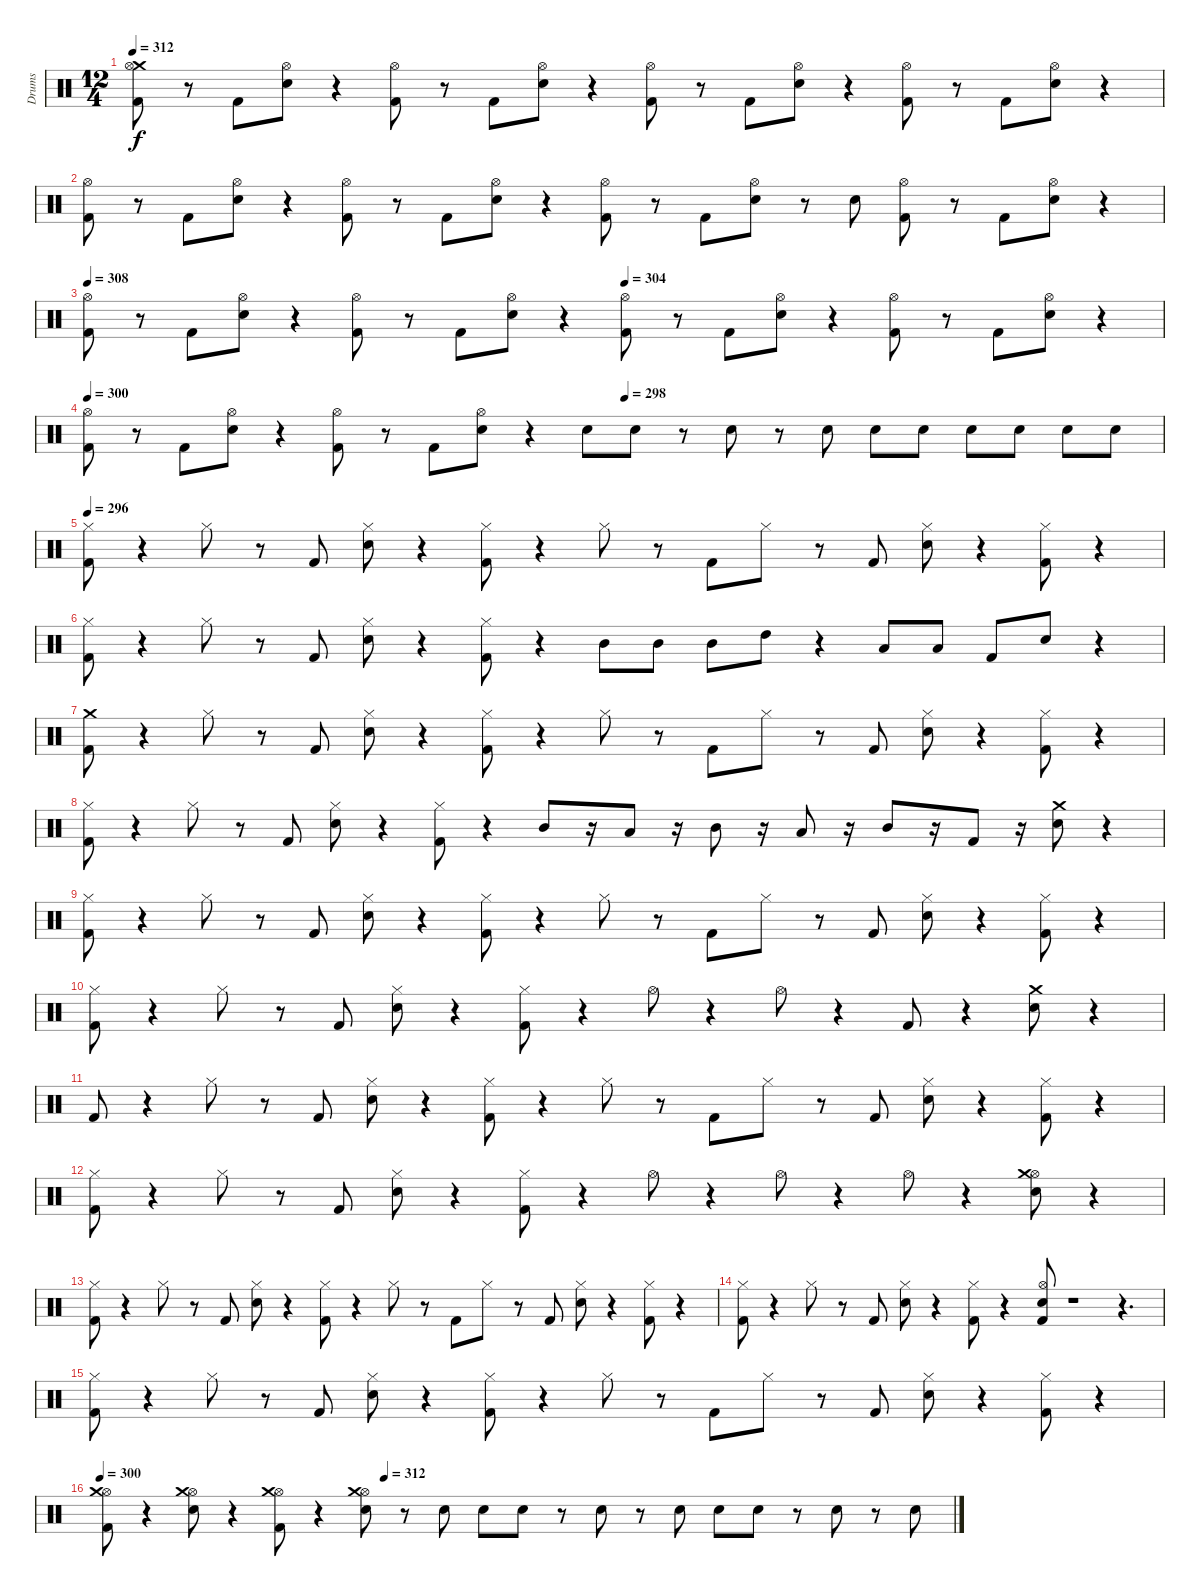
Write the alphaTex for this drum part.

\track ("Drums" "Drums") {instrument percussion}
\staff {score}
\articulation defaults
\ts (12 4)
\tempo 312
\clef neutral
\ks c
("Crash medium (hit)" "Kick (hit) 2" "Hi-Hat (open)").8{dy f} r.8 "Kick (hit) 2".8 ("Hi-Hat (open)" "Electric Snare (hit)").8 r.4 ("Hi-Hat (open)" "Kick (hit) 2").8 r.8 "Kick (hit) 2".8 ("Electric Snare (hit)" "Hi-Hat (open)").8 r.4 ("Hi-Hat (open)" "Kick (hit) 2").8 r.8 "Kick (hit) 2".8 ("Hi-Hat (open)" "Electric Snare (hit)").8 r.4 ("Hi-Hat (open)" "Kick (hit) 2").8 r.8 "Kick (hit) 2".8 ("Hi-Hat (open)" "Electric Snare (hit)").8 r.4 |
("Hi-Hat (open)" "Kick (hit) 2").8 r.8 "Kick (hit) 2".8 ("Hi-Hat (open)" "Electric Snare (hit)").8 r.4 ("Hi-Hat (open)" "Kick (hit) 2").8 r.8 "Kick (hit) 2".8 ("Hi-Hat (open)" "Electric Snare (hit)").8 r.4 ("Hi-Hat (open)" "Kick (hit) 2").8 r.8 "Kick (hit) 2".8 ("Hi-Hat (open)" "Electric Snare (hit)").8 r.8 "Electric Snare (hit)".8 ("Hi-Hat (open)" "Kick (hit) 2").8 r.8 "Kick (hit) 2".8 ("Hi-Hat (open)" "Electric Snare (hit)").8 r.4 |
\tempo 308
\tempo (304 0.5)
("Kick (hit) 2" "Hi-Hat (open)").8 r.8 "Kick (hit) 2".8 ("Hi-Hat (open)" "Electric Snare (hit)").8 r.4 ("Hi-Hat (open)" "Kick (hit) 2").8 r.8 "Kick (hit) 2".8 ("Electric Snare (hit)" "Hi-Hat (open)").8 r.4 ("Hi-Hat (open)" "Kick (hit) 2").8 r.8 "Kick (hit) 2".8 ("Hi-Hat (open)" "Electric Snare (hit)").8 r.4 ("Hi-Hat (open)" "Kick (hit) 2").8 r.8 "Kick (hit) 2".8 ("Hi-Hat (open)" "Electric Snare (hit)").8 r.4 |
\tempo 300
\tempo (298 0.5)
("Hi-Hat (open)" "Kick (hit) 2").8 r.8 "Kick (hit) 2".8 ("Hi-Hat (open)" "Electric Snare (hit)").8 r.4 ("Hi-Hat (open)" "Kick (hit) 2").8 r.8 "Kick (hit) 2".8 ("Hi-Hat (open)" "Electric Snare (hit)").8 r.4 "Electric Snare (hit)".8 "Electric Snare (hit)".8 r.8 "Electric Snare (hit)".8 r.8 "Electric Snare (hit)".8 "Electric Snare (hit)".8 "Electric Snare (hit)".8 "Electric Snare (hit)".8 "Electric Snare (hit)".8 "Electric Snare (hit)".8 "Electric Snare (hit)".8 |
\tempo 296
("Hi-Hat (closed)" "Kick (hit) 2").8 r.4 "Hi-Hat (closed)".8 r.8 "Kick (hit) 2".8 ("Hi-Hat (closed)" "Electric Snare (hit)").8 r.4 ("Hi-Hat (closed)" "Kick (hit) 2").8 r.4 "Hi-Hat (closed)".8 r.8 "Kick (hit) 2".8 "Hi-Hat (closed)".8 r.8 "Kick (hit) 2".8 ("Hi-Hat (closed)" "Electric Snare (hit)").8 r.4 ("Hi-Hat (closed)" "Kick (hit) 2").8 r.4 |
("Hi-Hat (closed)" "Kick (hit) 2").8 r.4 "Hi-Hat (closed)".8 r.8 "Kick (hit) 2".8 ("Hi-Hat (closed)" "Electric Snare (hit)").8 r.4 ("Hi-Hat (closed)" "Kick (hit) 2").8 r.4 "Mid Tom (hit)".8 "Mid Tom (hit)".8 "Mid Tom (hit)".8 "High Tom (hit)".8 r.4 "Low Tom (hit)".8 "Low Tom (hit)".8 "Kick (hit) 2".8 "Electric Snare (hit)".8 r.4 |
("Crash medium (hit)" "Kick (hit) 2").8 r.4 "Hi-Hat (closed)".8 r.8 "Kick (hit) 2".8 ("Hi-Hat (closed)" "Electric Snare (hit)").8 r.4 ("Hi-Hat (closed)" "Kick (hit) 2").8 r.4 "Hi-Hat (closed)".8 r.8 "Kick (hit) 2".8 "Hi-Hat (closed)".8 r.8 "Kick (hit) 2".8 ("Hi-Hat (closed)" "Electric Snare (hit)").8 r.4 ("Hi-Hat (closed)" "Kick (hit) 2").8 r.4 |
("Kick (hit) 2" "Hi-Hat (closed)").8 r.4 "Hi-Hat (closed)".8 r.8 "Kick (hit) 2".8 ("Hi-Hat (closed)" "Electric Snare (hit)").8 r.4 ("Hi-Hat (closed)" "Kick (hit) 2").8 r.4 "Mid Tom (hit)".8 r.16 "Low Tom (hit)".8 r.16 "Mid Tom (hit)".8 r.16 "Low Tom (hit)".8 r.16 "Mid Tom (hit)".8 r.16 "Kick (hit) 2".8 r.16 ("Crash medium (hit)" "Electric Snare (hit)").8 r.4 |
("Hi-Hat (closed)" "Kick (hit) 2").8 r.4 "Hi-Hat (closed)".8 r.8 "Kick (hit) 2".8 ("Hi-Hat (closed)" "Electric Snare (hit)").8 r.4 ("Hi-Hat (closed)" "Kick (hit) 2").8 r.4 "Hi-Hat (closed)".8 r.8 "Kick (hit) 2".8 "Hi-Hat (closed)".8 r.8 "Kick (hit) 2".8 ("Hi-Hat (closed)" "Electric Snare (hit)").8 r.4 ("Hi-Hat (closed)" "Kick (hit) 2").8 r.4 |
("Hi-Hat (closed)" "Kick (hit) 2").8 r.4 "Hi-Hat (closed)".8 r.8 "Kick (hit) 2".8 ("Hi-Hat (closed)" "Electric Snare (hit)").8 r.4 ("Hi-Hat (closed)" "Kick (hit) 2").8 r.4 "Hi-Hat (open)".8 r.4 "Hi-Hat (open)".8 r.4 "Kick (hit) 2".8 r.4 ("Electric Snare (hit)" "Crash medium (hit)").8 r.4 |
"Kick (hit) 2".8 r.4 "Hi-Hat (closed)".8 r.8 "Kick (hit) 2".8 ("Hi-Hat (closed)" "Electric Snare (hit)").8 r.4 ("Hi-Hat (closed)" "Kick (hit) 2").8 r.4 "Hi-Hat (closed)".8 r.8 "Kick (hit) 2".8 "Hi-Hat (closed)".8 r.8 "Kick (hit) 2".8 ("Hi-Hat (closed)" "Electric Snare (hit)").8 r.4 ("Hi-Hat (closed)" "Kick (hit) 2").8 r.4 |
("Kick (hit) 2" "Hi-Hat (closed)").8 r.4 "Hi-Hat (closed)".8 r.8 "Kick (hit) 2".8 ("Hi-Hat (closed)" "Electric Snare (hit)").8 r.4 ("Hi-Hat (closed)" "Kick (hit) 2").8 r.4 "Hi-Hat (open)".8 r.4 "Hi-Hat (open)".8 r.4 "Hi-Hat (open)".8 r.4 ("Hi-Hat (open)" "Electric Snare (hit)" "Crash medium (hit)").8 r.4 |
("Kick (hit) 2" "Hi-Hat (closed)").8 r.4 "Hi-Hat (closed)".8 r.8 "Kick (hit) 2".8 ("Hi-Hat (closed)" "Electric Snare (hit)").8 r.4 ("Hi-Hat (closed)" "Kick (hit) 2").8 r.4 "Hi-Hat (closed)".8 r.8 "Kick (hit) 2".8 "Hi-Hat (closed)".8 r.8 "Kick (hit) 2".8 ("Hi-Hat (closed)" "Electric Snare (hit)").8 r.4 ("Hi-Hat (closed)" "Kick (hit) 2").8 r.4 |
("Kick (hit) 2" "Hi-Hat (closed)").8 r.4 "Hi-Hat (closed)".8 r.8 "Kick (hit) 2".8 ("Hi-Hat (closed)" "Electric Snare (hit)").8 r.4 ("Hi-Hat (closed)" "Kick (hit) 2").8 r.4 ("Hi-Hat (open)" "Kick (hit) 2" "Electric Snare (hit)").8 r.1 r.4{d} |
("Kick (hit) 2" "Hi-Hat (closed)").8 r.4 "Hi-Hat (closed)".8 r.8 "Kick (hit) 2".8 ("Hi-Hat (closed)" "Electric Snare (hit)").8 r.4 ("Hi-Hat (closed)" "Kick (hit) 2").8 r.4 "Hi-Hat (closed)".8 r.8 "Kick (hit) 2".8 "Hi-Hat (closed)".8 r.8 "Kick (hit) 2".8 ("Hi-Hat (closed)" "Electric Snare (hit)").8 r.4 ("Hi-Hat (closed)" "Kick (hit) 2").8 r.4 |
\tempo 300
\tempo (312 0.3333333333333333)
("Kick (hit) 2" "Hi-Hat (open)" "Crash medium (hit)").8 r.4 ("Electric Snare (hit)" "Hi-Hat (open)" "Crash medium (hit)").8 r.4 ("Kick (hit) 2" "Hi-Hat (open)" "Crash medium (hit)").8 r.4 ("Electric Snare (hit)" "Hi-Hat (open)" "Crash medium (hit)").8 r.8 "Electric Snare (hit)".8 "Electric Snare (hit)".8 "Electric Snare (hit)".8 r.8 "Electric Snare (hit)".8 r.8 "Electric Snare (hit)".8 "Electric Snare (hit)".8 "Electric Snare (hit)".8 r.8 "Electric Snare (hit)".8 r.8 "Electric Snare (hit)".8
